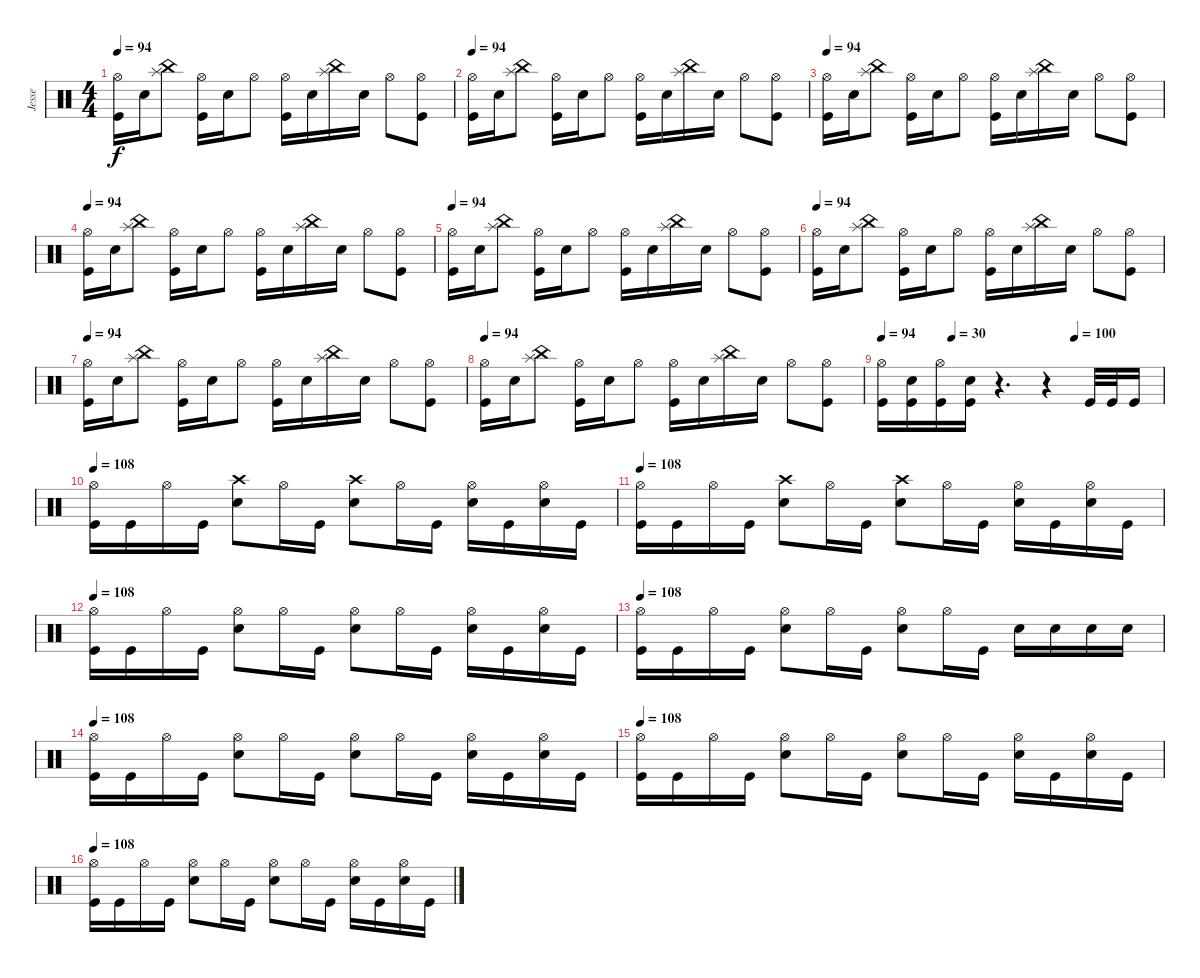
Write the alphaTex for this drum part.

\track ("Jesse" "Jesse") {instrument percussion}
\staff {score}
\articulation defaults
\ts (4 4)
\tempo 94
\clef neutral
\ks c
("Hi-Hat (open)" "Kick (hit)").16{dy f} "Snare (hit) 2".16 ("China (hit)" "Splash (hit)").8 ("Hi-Hat (open)" "Kick (hit)").16 "Snare (hit) 2".16 "Hi-Hat (open)".8 ("Hi-Hat (open)" "Kick (hit)").16 "Snare (hit) 2".16 ("Splash (hit)" "China (hit)").16 "Snare (hit) 2".16 "Hi-Hat (open)".8 ("Hi-Hat (open)" "Kick (hit)").8 |
\tempo 94
("Hi-Hat (open)" "Kick (hit)").16 "Snare (hit) 2".16 ("China (hit)" "Splash (hit)").8 ("Hi-Hat (open)" "Kick (hit)").16 "Snare (hit) 2".16 "Hi-Hat (open)".8 ("Hi-Hat (open)" "Kick (hit)").16 "Snare (hit) 2".16 ("Splash (hit)" "China (hit)").16 "Snare (hit) 2".16 "Hi-Hat (open)".8 ("Hi-Hat (open)" "Kick (hit)").8 |
\tempo 94
("Hi-Hat (open)" "Kick (hit)").16 "Snare (hit) 2".16 ("China (hit)" "Splash (hit)").8 ("Hi-Hat (open)" "Kick (hit)").16 "Snare (hit) 2".16 "Hi-Hat (open)".8 ("Hi-Hat (open)" "Kick (hit)").16 "Snare (hit) 2".16 ("Splash (hit)" "China (hit)").16 "Snare (hit) 2".16 "Hi-Hat (open)".8 ("Hi-Hat (open)" "Kick (hit)").8 |
\tempo 94
("Hi-Hat (open)" "Kick (hit)").16 "Snare (hit) 2".16 ("China (hit)" "Splash (hit)").8 ("Hi-Hat (open)" "Kick (hit)").16 "Snare (hit) 2".16 "Hi-Hat (open)".8 ("Hi-Hat (open)" "Kick (hit)").16 "Snare (hit) 2".16 ("Splash (hit)" "China (hit)").16 "Snare (hit) 2".16 "Hi-Hat (open)".8 ("Hi-Hat (open)" "Kick (hit)").8 |
\tempo 94
("Hi-Hat (open)" "Kick (hit)").16 "Snare (hit) 2".16 ("China (hit)" "Splash (hit)").8 ("Hi-Hat (open)" "Kick (hit)").16 "Snare (hit) 2".16 "Hi-Hat (open)".8 ("Hi-Hat (open)" "Kick (hit)").16 "Snare (hit) 2".16 ("Splash (hit)" "China (hit)").16 "Snare (hit) 2".16 "Hi-Hat (open)".8 ("Hi-Hat (open)" "Kick (hit)").8 |
\tempo 94
("Hi-Hat (open)" "Kick (hit)").16 "Snare (hit) 2".16 ("China (hit)" "Splash (hit)").8 ("Hi-Hat (open)" "Kick (hit)").16 "Snare (hit) 2".16 "Hi-Hat (open)".8 ("Hi-Hat (open)" "Kick (hit)").16 "Snare (hit) 2".16 ("Splash (hit)" "China (hit)").16 "Snare (hit) 2".16 "Hi-Hat (open)".8 ("Hi-Hat (open)" "Kick (hit)").8 |
\tempo 94
("Hi-Hat (open)" "Kick (hit)").16 "Snare (hit) 2".16 ("China (hit)" "Splash (hit)").8 ("Hi-Hat (open)" "Kick (hit)").16 "Snare (hit) 2".16 "Hi-Hat (open)".8 ("Hi-Hat (open)" "Kick (hit)").16 "Snare (hit) 2".16 ("Splash (hit)" "China (hit)").16 "Snare (hit) 2".16 "Hi-Hat (open)".8 ("Hi-Hat (open)" "Kick (hit)").8 |
\tempo 94
("Hi-Hat (open)" "Kick (hit)").16 "Snare (hit) 2".16 ("China (hit)" "Splash (hit)").8 ("Hi-Hat (open)" "Kick (hit)").16 "Snare (hit) 2".16 "Hi-Hat (open)".8 ("Hi-Hat (open)" "Kick (hit)").16 "Snare (hit) 2".16 ("Splash (hit)" "China (hit)").16 "Snare (hit) 2".16 "Hi-Hat (open)".8 ("Hi-Hat (open)" "Kick (hit)").8 |
\tempo 94
\tempo (30 0.25)
\tempo (100 0.6875)
("Hi-Hat (open)" "Kick (hit)").16 ("Snare (hit) 2" "Kick (hit)").16 ("Hi-Hat (open)" "Kick (hit)").16 ("Snare (hit) 2" "Kick (hit)").16 r.4{d} r.4 "Kick (hit)".32 "Kick (hit)".32 "Kick (hit)".16 |
\tempo 100
\tempo 108
("Hi-Hat (open)" "Kick (hit)").16 "Kick (hit)".16 "Hi-Hat (open)".16 "Kick (hit)".16 ("Crash high (hit)" "Snare (hit) 2").8 "Hi-Hat (open)".16 "Kick (hit)".16 ("Crash high (hit)" "Snare (hit) 2").8 "Hi-Hat (open)".16 "Kick (hit)".16 ("Hi-Hat (open)" "Snare (hit) 2").16 "Kick (hit)".16 ("Hi-Hat (open)" "Snare (hit) 2").16 "Kick (hit)".16 |
\tempo 100
\tempo 108
("Hi-Hat (open)" "Kick (hit)").16 "Kick (hit)".16 "Hi-Hat (open)".16 "Kick (hit)".16 ("Crash high (hit)" "Snare (hit) 2").8 "Hi-Hat (open)".16 "Kick (hit)".16 ("Crash high (hit)" "Snare (hit) 2").8 "Hi-Hat (open)".16 "Kick (hit)".16 ("Hi-Hat (open)" "Snare (hit) 2").16 "Kick (hit)".16 ("Hi-Hat (open)" "Snare (hit) 2").16 "Kick (hit)".16 |
\tempo 100
\tempo 108
("Hi-Hat (open)" "Kick (hit)").16 "Kick (hit)".16 "Hi-Hat (open)".16 "Kick (hit)".16 ("Hi-Hat (open)" "Snare (hit) 2").8 "Hi-Hat (open)".16 "Kick (hit)".16 ("Hi-Hat (open)" "Snare (hit) 2").8 "Hi-Hat (open)".16 "Kick (hit)".16 ("Hi-Hat (open)" "Snare (hit) 2").16 "Kick (hit)".16 ("Hi-Hat (open)" "Snare (hit) 2").16 "Kick (hit)".16 |
\tempo 100
\tempo 108
("Hi-Hat (open)" "Kick (hit)").16 "Kick (hit)".16 "Hi-Hat (open)".16 "Kick (hit)".16 ("Hi-Hat (open)" "Snare (hit) 2").8 "Hi-Hat (open)".16 "Kick (hit)".16 ("Hi-Hat (open)" "Snare (hit) 2").8 "Hi-Hat (open)".16 "Kick (hit)".16 "Snare (hit) 2".16 "Snare (hit) 2".16 "Snare (hit) 2".16 "Snare (hit) 2".16 |
\tempo 108
("Hi-Hat (open)" "Kick (hit)").16 "Kick (hit)".16 "Hi-Hat (open)".16 "Kick (hit)".16 ("Hi-Hat (open)" "Snare (hit) 2").8 "Hi-Hat (open)".16 "Kick (hit)".16 ("Hi-Hat (open)" "Snare (hit) 2").8 "Hi-Hat (open)".16 "Kick (hit)".16 ("Hi-Hat (open)" "Snare (hit) 2").16 "Kick (hit)".16 ("Hi-Hat (open)" "Snare (hit) 2").16 "Kick (hit)".16 |
\tempo 108
("Hi-Hat (open)" "Kick (hit)").16 "Kick (hit)".16 "Hi-Hat (open)".16 "Kick (hit)".16 ("Hi-Hat (open)" "Snare (hit) 2").8 "Hi-Hat (open)".16 "Kick (hit)".16 ("Hi-Hat (open)" "Snare (hit) 2").8 "Hi-Hat (open)".16 "Kick (hit)".16 ("Hi-Hat (open)" "Snare (hit) 2").16 "Kick (hit)".16 ("Hi-Hat (open)" "Snare (hit) 2").16 "Kick (hit)".16 |
\tempo 108
("Hi-Hat (open)" "Kick (hit)").16 "Kick (hit)".16 "Hi-Hat (open)".16 "Kick (hit)".16 ("Hi-Hat (open)" "Snare (hit) 2").8 "Hi-Hat (open)".16 "Kick (hit)".16 ("Hi-Hat (open)" "Snare (hit) 2").8 "Hi-Hat (open)".16 "Kick (hit)".16 ("Hi-Hat (open)" "Snare (hit) 2").16 "Kick (hit)".16 ("Hi-Hat (open)" "Snare (hit) 2").16 "Kick (hit)".16
